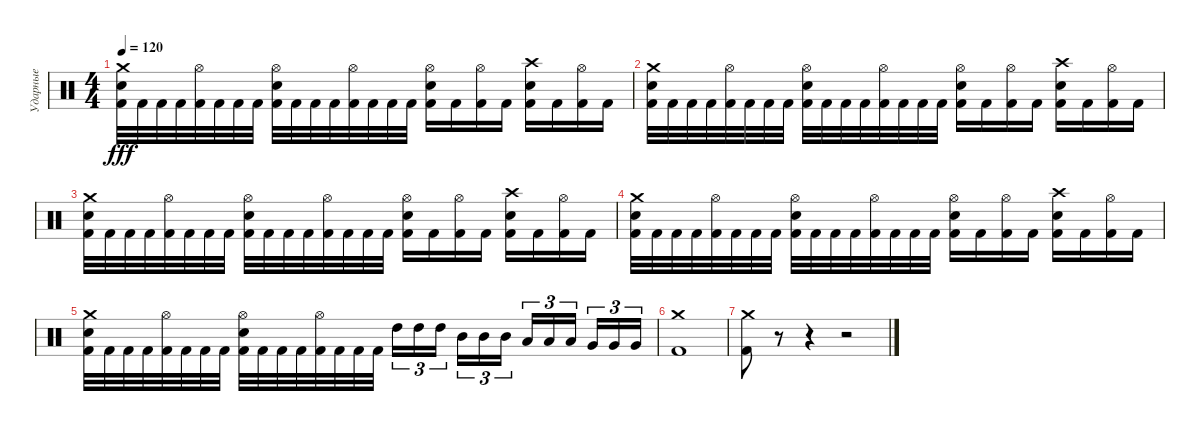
\track ("Ударные" "Ударные") {instrument percussion}
\staff {score}
\articulation defaults
\ts (4 4)
\tempo 120
\clef neutral
\ks c
("Crash medium (hit)" "Electric Snare (hit)" "Kick (hit) 2").32{dy fff} "Kick (hit) 2".32 "Kick (hit) 2".32 "Kick (hit) 2".32 ("Hi-Hat (open)" "Kick (hit) 2").32 "Kick (hit) 2".32 "Kick (hit) 2".32 "Kick (hit) 2".32 ("Hi-Hat (open)" "Electric Snare (hit)" "Kick (hit) 2").32 "Kick (hit) 2".32 "Kick (hit) 2".32 "Kick (hit) 2".32 ("Hi-Hat (open)" "Kick (hit) 2").32 "Kick (hit) 2".32 "Kick (hit) 2".32 "Kick (hit) 2".32 ("Hi-Hat (open)" "Electric Snare (hit)" "Kick (hit) 2").16 "Kick (hit) 2".16 ("Hi-Hat (open)" "Kick (hit) 2").16 "Kick (hit) 2".16 ("Crash high (hit)" "Electric Snare (hit)" "Kick (hit) 2").16 "Kick (hit) 2".16 ("Hi-Hat (open)" "Kick (hit) 2").16 "Kick (hit) 2".16 |
("Crash medium (hit)" "Electric Snare (hit)" "Kick (hit) 2").32 "Kick (hit) 2".32 "Kick (hit) 2".32 "Kick (hit) 2".32 ("Hi-Hat (open)" "Kick (hit) 2").32 "Kick (hit) 2".32 "Kick (hit) 2".32 "Kick (hit) 2".32 ("Hi-Hat (open)" "Electric Snare (hit)" "Kick (hit) 2").32 "Kick (hit) 2".32 "Kick (hit) 2".32 "Kick (hit) 2".32 ("Hi-Hat (open)" "Kick (hit) 2").32 "Kick (hit) 2".32 "Kick (hit) 2".32 "Kick (hit) 2".32 ("Hi-Hat (open)" "Electric Snare (hit)" "Kick (hit) 2").16 "Kick (hit) 2".16 ("Hi-Hat (open)" "Kick (hit) 2").16 "Kick (hit) 2".16 ("Crash high (hit)" "Electric Snare (hit)" "Kick (hit) 2").16 "Kick (hit) 2".16 ("Hi-Hat (open)" "Kick (hit) 2").16 "Kick (hit) 2".16 |
("Crash medium (hit)" "Electric Snare (hit)" "Kick (hit) 2").32 "Kick (hit) 2".32 "Kick (hit) 2".32 "Kick (hit) 2".32 ("Hi-Hat (open)" "Kick (hit) 2").32 "Kick (hit) 2".32 "Kick (hit) 2".32 "Kick (hit) 2".32 ("Hi-Hat (open)" "Electric Snare (hit)" "Kick (hit) 2").32 "Kick (hit) 2".32 "Kick (hit) 2".32 "Kick (hit) 2".32 ("Hi-Hat (open)" "Kick (hit) 2").32 "Kick (hit) 2".32 "Kick (hit) 2".32 "Kick (hit) 2".32 ("Hi-Hat (open)" "Electric Snare (hit)" "Kick (hit) 2").16 "Kick (hit) 2".16 ("Hi-Hat (open)" "Kick (hit) 2").16 "Kick (hit) 2".16 ("Crash high (hit)" "Electric Snare (hit)" "Kick (hit) 2").16 "Kick (hit) 2".16 ("Hi-Hat (open)" "Kick (hit) 2").16 "Kick (hit) 2".16 |
("Crash medium (hit)" "Electric Snare (hit)" "Kick (hit) 2").32 "Kick (hit) 2".32 "Kick (hit) 2".32 "Kick (hit) 2".32 ("Hi-Hat (open)" "Kick (hit) 2").32 "Kick (hit) 2".32 "Kick (hit) 2".32 "Kick (hit) 2".32 ("Hi-Hat (open)" "Electric Snare (hit)" "Kick (hit) 2").32 "Kick (hit) 2".32 "Kick (hit) 2".32 "Kick (hit) 2".32 ("Hi-Hat (open)" "Kick (hit) 2").32 "Kick (hit) 2".32 "Kick (hit) 2".32 "Kick (hit) 2".32 ("Hi-Hat (open)" "Electric Snare (hit)" "Kick (hit) 2").16 "Kick (hit) 2".16 ("Hi-Hat (open)" "Kick (hit) 2").16 "Kick (hit) 2".16 ("Crash high (hit)" "Electric Snare (hit)" "Kick (hit) 2").16 "Kick (hit) 2".16 ("Hi-Hat (open)" "Kick (hit) 2").16 "Kick (hit) 2".16 |
("Crash medium (hit)" "Electric Snare (hit)" "Kick (hit) 2").32 "Kick (hit) 2".32 "Kick (hit) 2".32 "Kick (hit) 2".32 ("Hi-Hat (open)" "Kick (hit) 2").32 "Kick (hit) 2".32 "Kick (hit) 2".32 "Kick (hit) 2".32 ("Hi-Hat (open)" "Electric Snare (hit)" "Kick (hit) 2").32 "Kick (hit) 2".32 "Kick (hit) 2".32 "Kick (hit) 2".32 ("Hi-Hat (open)" "Kick (hit) 2").32 "Kick (hit) 2".32 "Kick (hit) 2".32 "Kick (hit) 2".32 "High Tom (hit)".16{tu (3 2)} "High Tom (hit)".16{tu (3 2)} "High Tom (hit)".16{tu (3 2) beam splitsecondary} "Mid Tom (hit)".16{tu (3 2)} "Mid Tom (hit)".16{tu (3 2)} "Mid Tom (hit)".16{tu (3 2)} "Low Tom (hit)".16{tu (3 2)} "Low Tom (hit)".16{tu (3 2)} "Low Tom (hit)".16{tu (3 2) beam splitsecondary} "Very Low Tom (hit)".16{tu (3 2)} "Very Low Tom (hit)".16{tu (3 2)} "Very Low Tom (hit)".16{tu (3 2)} |
("Crash medium (hit)" "Kick (hit) 2").1 |
("Crash medium (hit)" "Kick (hit) 2").8 r.8 r.4 r.2
